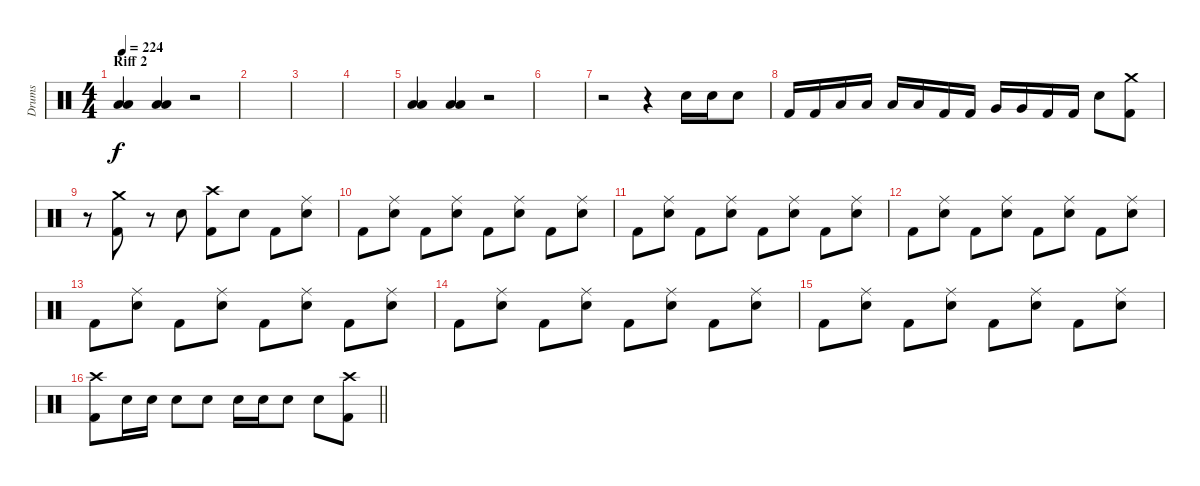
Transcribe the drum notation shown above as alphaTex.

\track ("Drums" "Drums") {instrument percussion}
\staff {score}
\articulation defaults
\ts (4 4)
\section ("" "Riff 2")
\tempo 224
\clef neutral
\ks c
("Low Tom (hit)" "Low Floor Tom (hit)").4{dy f} ("Low Tom (hit)" "Low Floor Tom (hit)").4 r.2 |
|
|
|
("Low Tom (hit)" "Low Floor Tom (hit)").4 ("Low Tom (hit)" "Low Floor Tom (hit)").4 r.2 |
|
r.2 r.4 "Electric Snare (hit)".16 "Electric Snare (hit)".16 "Electric Snare (hit)".8 |
"Kick (hit) 2".16 "Kick (hit) 2".16 "Low Tom (hit)".16 "Low Tom (hit)".16 "Low Tom (hit)".16 "Low Tom (hit)".16 "Kick (hit) 2".16 "Kick (hit) 2".16 "Very Low Tom (hit)".16 "Very Low Tom (hit)".16 "Kick (hit) 2".16 "Kick (hit) 2".16 "Electric Snare (hit)".8 ("Crash medium (hit)" "Kick (hit) 2").8 |
r.8 ("Kick (hit) 2" "Crash medium (hit)").8 r.8 "Electric Snare (hit)".8 ("Kick (hit) 2" "Crash high (hit)").8 "Electric Snare (hit)".8 "Kick (hit) 2".8 ("Electric Snare (hit)" "Ride (middle)").8 |
"Kick (hit) 2".8 ("Electric Snare (hit)" "Ride (middle)").8 "Kick (hit) 2".8 ("Electric Snare (hit)" "Ride (middle)").8 "Kick (hit) 2".8 ("Electric Snare (hit)" "Ride (middle)").8 "Kick (hit) 2".8 ("Electric Snare (hit)" "Ride (middle)").8 |
"Kick (hit) 2".8 ("Electric Snare (hit)" "Ride (middle)").8 "Kick (hit) 2".8 ("Electric Snare (hit)" "Ride (middle)").8 "Kick (hit) 2".8 ("Electric Snare (hit)" "Ride (middle)").8 "Kick (hit) 2".8 ("Electric Snare (hit)" "Ride (middle)").8 |
"Kick (hit) 2".8 ("Electric Snare (hit)" "Ride (middle)").8 "Kick (hit) 2".8 ("Electric Snare (hit)" "Ride (middle)").8 "Kick (hit) 2".8 ("Electric Snare (hit)" "Ride (middle)").8 "Kick (hit) 2".8 ("Electric Snare (hit)" "Ride (middle)").8 |
"Kick (hit) 2".8 ("Electric Snare (hit)" "Ride (middle)").8 "Kick (hit) 2".8 ("Electric Snare (hit)" "Ride (middle)").8 "Kick (hit) 2".8 ("Electric Snare (hit)" "Ride (middle)").8 "Kick (hit) 2".8 ("Electric Snare (hit)" "Ride (middle)").8 |
"Kick (hit) 2".8 ("Electric Snare (hit)" "Ride (middle)").8 "Kick (hit) 2".8 ("Electric Snare (hit)" "Ride (middle)").8 "Kick (hit) 2".8 ("Electric Snare (hit)" "Ride (middle)").8 "Kick (hit) 2".8 ("Electric Snare (hit)" "Ride (middle)").8 |
"Kick (hit) 2".8 ("Electric Snare (hit)" "Ride (middle)").8 "Kick (hit) 2".8 ("Electric Snare (hit)" "Ride (middle)").8 "Kick (hit) 2".8 ("Electric Snare (hit)" "Ride (middle)").8 "Kick (hit) 2".8 ("Electric Snare (hit)" "Ride (middle)").8 |
\barLineRight lightlight
("Crash high (hit)" "Kick (hit) 2").8 "Electric Snare (hit)".16 "Electric Snare (hit)".16 "Electric Snare (hit)".8 "Electric Snare (hit)".8 "Electric Snare (hit)".16 "Electric Snare (hit)".16 "Electric Snare (hit)".8 "Electric Snare (hit)".8 ("Kick (hit) 2" "Crash high (hit)").8
